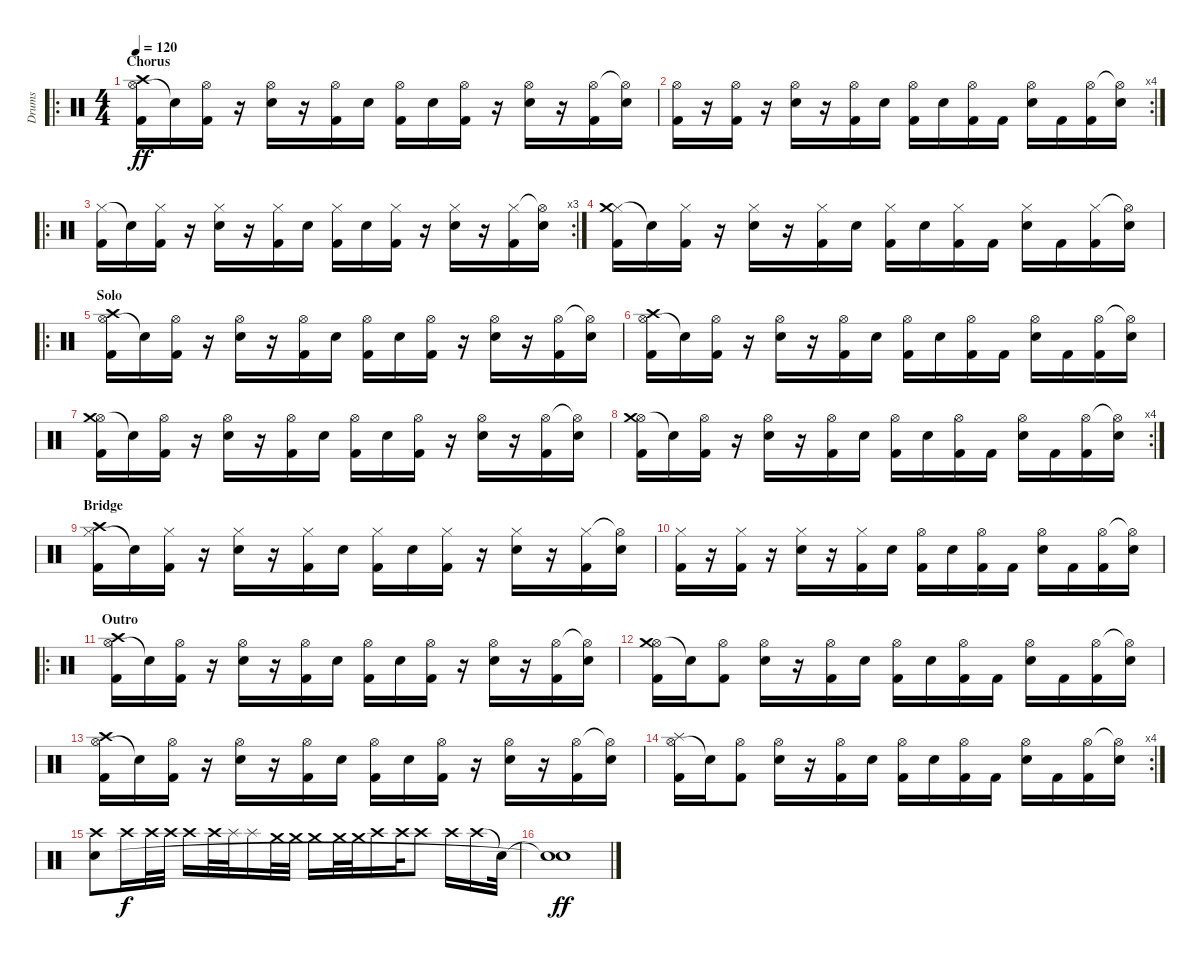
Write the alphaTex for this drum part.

\track ("Drums" "Drums") {instrument percussion}
\staff {score}
\articulation defaults
\ro
\ts (4 4)
\section ("" "Chorus")
\tempo 120
\clef neutral
\ks c
("Hi-Hat (open)" "Crash high (hit)" "Kick (hit) 2").16{dy ff} "Snare (hit)"{t}.16 ("Hi-Hat (open)" "Kick (hit) 2").16 r.16 ("Hi-Hat (open)" "Electric Snare (hit)").16 r.16 ("Hi-Hat (open)" "Kick (hit) 2").16 "Electric Snare (hit)".16 ("Hi-Hat (open)" "Kick (hit) 2").16 "Electric Snare (hit)".16 ("Hi-Hat (open)" "Kick (hit) 2").16 r.16 ("Hi-Hat (open)" "Electric Snare (hit)").16 r.16 ("Hi-Hat (open)" "Kick (hit) 2").16 ("Hi-Hat (open)"{t} "Electric Snare (hit)").16 |
\rc 4
("Hi-Hat (open)" "Kick (hit) 2").16 r.16 ("Hi-Hat (open)" "Kick (hit) 2").16 r.16 ("Hi-Hat (open)" "Electric Snare (hit)").16 r.16 ("Hi-Hat (open)" "Kick (hit) 2").16 "Electric Snare (hit)".16 ("Hi-Hat (open)" "Kick (hit) 2").16 "Electric Snare (hit)".16 ("Hi-Hat (open)" "Kick (hit) 2").16 "Kick (hit) 2".16 ("Hi-Hat (open)" "Electric Snare (hit)").16 "Kick (hit) 2".16 ("Hi-Hat (open)" "Kick (hit) 2").16 ("Hi-Hat (open)"{t} "Electric Snare (hit)").16 |
\ro
\rc 3
("Hi-Hat (closed)" "Kick (hit) 2").16 "Snare (hit)"{t}.16 ("Hi-Hat (closed)" "Kick (hit) 2").16 r.16 ("Hi-Hat (closed)" "Electric Snare (hit)").16 r.16 ("Hi-Hat (closed)" "Kick (hit) 2").16 "Electric Snare (hit)".16 ("Hi-Hat (closed)" "Kick (hit) 2").16 "Electric Snare (hit)".16 ("Hi-Hat (closed)" "Kick (hit) 2").16 r.16 ("Hi-Hat (closed)" "Electric Snare (hit)").16 r.16 ("Hi-Hat (closed)" "Kick (hit) 2").16 ("Hi-Hat (open)"{t} "Electric Snare (hit)").16 |
("Hi-Hat (closed)" "Crash medium (hit)" "Kick (hit) 2").16 "Snare (hit)"{t}.16 ("Hi-Hat (closed)" "Kick (hit) 2").16 r.16 ("Hi-Hat (closed)" "Electric Snare (hit)").16 r.16 ("Hi-Hat (closed)" "Kick (hit) 2").16 "Electric Snare (hit)".16 ("Hi-Hat (closed)" "Kick (hit) 2").16 "Electric Snare (hit)".16 ("Hi-Hat (closed)" "Kick (hit) 2").16 "Kick (hit) 2".16 ("Hi-Hat (closed)" "Electric Snare (hit)").16 "Kick (hit) 2".16 ("Hi-Hat (closed)" "Kick (hit) 2").16 ("Hi-Hat (open)"{t} "Electric Snare (hit)").16 |
\ro
\section ("" "Solo")
("Hi-Hat (open)" "Crash high (hit)" "Kick (hit) 2").16 "Snare (hit)"{t}.16 ("Hi-Hat (open)" "Kick (hit) 2").16 r.16 ("Hi-Hat (open)" "Electric Snare (hit)").16 r.16 ("Hi-Hat (open)" "Kick (hit) 2").16 "Electric Snare (hit)".16 ("Hi-Hat (open)" "Kick (hit) 2").16 "Electric Snare (hit)".16 ("Hi-Hat (open)" "Kick (hit) 2").16 r.16 ("Hi-Hat (open)" "Electric Snare (hit)").16 r.16 ("Hi-Hat (open)" "Kick (hit) 2").16 ("Hi-Hat (open)"{t} "Electric Snare (hit)").16 |
("Hi-Hat (open)" "Crash high (hit)" "Kick (hit) 2").16 "Snare (hit)"{t}.16 ("Hi-Hat (open)" "Kick (hit) 2").16 r.16 ("Hi-Hat (open)" "Electric Snare (hit)").16 r.16 ("Hi-Hat (open)" "Kick (hit) 2").16 "Electric Snare (hit)".16 ("Hi-Hat (open)" "Kick (hit) 2").16 "Electric Snare (hit)".16 ("Hi-Hat (open)" "Kick (hit) 2").16 "Kick (hit) 2".16 ("Hi-Hat (open)" "Electric Snare (hit)").16 "Kick (hit) 2".16 ("Hi-Hat (open)" "Kick (hit) 2").16 ("Hi-Hat (open)"{t} "Electric Snare (hit)").16 |
("Hi-Hat (open)" "Crash medium (hit)" "Kick (hit) 2").16 "Snare (hit)"{t}.16 ("Hi-Hat (open)" "Kick (hit) 2").16 r.16 ("Hi-Hat (open)" "Electric Snare (hit)").16 r.16 ("Hi-Hat (open)" "Kick (hit) 2").16 "Electric Snare (hit)".16 ("Hi-Hat (open)" "Kick (hit) 2").16 "Electric Snare (hit)".16 ("Hi-Hat (open)" "Kick (hit) 2").16 r.16 ("Hi-Hat (open)" "Electric Snare (hit)").16 r.16 ("Hi-Hat (open)" "Kick (hit) 2").16 ("Hi-Hat (open)"{t} "Electric Snare (hit)").16 |
\rc 4
("Hi-Hat (open)" "Crash medium (hit)" "Kick (hit) 2").16 "Snare (hit)"{t}.16 ("Hi-Hat (open)" "Kick (hit) 2").16 r.16 ("Hi-Hat (open)" "Electric Snare (hit)").16 r.16 ("Hi-Hat (open)" "Kick (hit) 2").16 "Electric Snare (hit)".16 ("Hi-Hat (open)" "Kick (hit) 2").16 "Electric Snare (hit)".16 ("Hi-Hat (open)" "Kick (hit) 2").16 "Kick (hit) 2".16 ("Hi-Hat (open)" "Electric Snare (hit)").16 "Kick (hit) 2".16 ("Hi-Hat (open)" "Kick (hit) 2").16 ("Hi-Hat (open)"{t} "Electric Snare (hit)").16 |
\section ("" "Bridge")
("Hi-Hat (closed)" "Crash high (hit)" "Kick (hit) 2").16 "Snare (hit)"{t}.16 ("Hi-Hat (closed)" "Kick (hit) 2").16 r.16 ("Hi-Hat (closed)" "Electric Snare (hit)").16 r.16 ("Hi-Hat (closed)" "Kick (hit) 2").16 "Electric Snare (hit)".16 ("Hi-Hat (closed)" "Kick (hit) 2").16 "Electric Snare (hit)".16 ("Hi-Hat (closed)" "Kick (hit) 2").16 r.16 ("Hi-Hat (closed)" "Electric Snare (hit)").16 r.16 ("Hi-Hat (closed)" "Kick (hit) 2").16 ("Hi-Hat (open)"{t} "Electric Snare (hit)").16 |
("Hi-Hat (closed)" "Kick (hit) 2").16 r.16 ("Hi-Hat (closed)" "Kick (hit) 2").16 r.16 ("Hi-Hat (closed)" "Electric Snare (hit)").16 r.16 ("Hi-Hat (closed)" "Kick (hit) 2").16 "Electric Snare (hit)".16 ("Hi-Hat (open)" "Kick (hit) 2").16 "Electric Snare (hit)".16 ("Hi-Hat (open)" "Kick (hit) 2").16 "Kick (hit) 2".16 ("Hi-Hat (open)" "Electric Snare (hit)").16 "Kick (hit) 2".16 ("Hi-Hat (open)" "Kick (hit) 2").16 ("Hi-Hat (open)"{t} "Electric Snare (hit)").16 |
\ro
\section ("" "Outro")
("Hi-Hat (open)" "Crash high (hit)" "Kick (hit) 2").16 "Snare (hit)"{t}.16 ("Hi-Hat (open)" "Kick (hit) 2").16 r.16 ("Hi-Hat (open)" "Electric Snare (hit)").16 r.16 ("Hi-Hat (open)" "Kick (hit) 2").16 "Electric Snare (hit)".16 ("Hi-Hat (open)" "Kick (hit) 2").16 "Electric Snare (hit)".16 ("Hi-Hat (open)" "Kick (hit) 2").16 r.16 ("Hi-Hat (open)" "Electric Snare (hit)").16 r.16 ("Hi-Hat (open)" "Kick (hit) 2").16 ("Hi-Hat (open)"{t} "Electric Snare (hit)").16 |
("Hi-Hat (open)" "Crash medium (hit)" "Kick (hit) 2").16 "Snare (hit)"{t}.16 ("Hi-Hat (open)" "Kick (hit) 2").8 ("Hi-Hat (open)" "Electric Snare (hit)").16 r.16 ("Hi-Hat (open)" "Kick (hit) 2").16 "Electric Snare (hit)".16 ("Hi-Hat (open)" "Kick (hit) 2").16 "Electric Snare (hit)".16 ("Hi-Hat (open)" "Kick (hit) 2").16 "Kick (hit) 2".16 ("Hi-Hat (open)" "Electric Snare (hit)").16 "Kick (hit) 2".16 ("Hi-Hat (open)" "Kick (hit) 2").16 ("Hi-Hat (open)"{t} "Electric Snare (hit)").16 |
("Hi-Hat (open)" "Crash high (hit)" "Kick (hit) 2").16 "Snare (hit)"{t}.16 ("Hi-Hat (open)" "Kick (hit) 2").16 r.16 ("Hi-Hat (open)" "Electric Snare (hit)").16 r.16 ("Hi-Hat (open)" "Kick (hit) 2").16 "Electric Snare (hit)".16 ("Hi-Hat (open)" "Kick (hit) 2").16 "Electric Snare (hit)".16 ("Hi-Hat (open)" "Kick (hit) 2").16 r.16 ("Hi-Hat (open)" "Electric Snare (hit)").16 r.16 ("Hi-Hat (open)" "Kick (hit) 2").16 ("Hi-Hat (open)"{t} "Electric Snare (hit)").16 |
\rc 4
("Hi-Hat (open)" "Splash (hit)" "Kick (hit) 2").16 "Snare (hit)"{t}.16 ("Hi-Hat (open)" "Kick (hit) 2").8 ("Hi-Hat (open)" "Electric Snare (hit)").16 r.16 ("Hi-Hat (open)" "Kick (hit) 2").16 "Electric Snare (hit)".16 ("Hi-Hat (open)" "Kick (hit) 2").16 "Electric Snare (hit)".16 ("Hi-Hat (open)" "Kick (hit) 2").16 "Kick (hit) 2".16 ("Hi-Hat (open)" "Electric Snare (hit)").16 "Kick (hit) 2".16 ("Hi-Hat (open)" "Kick (hit) 2").16 ("Hi-Hat (open)"{t} "Electric Snare (hit)").16 |
("Crash high (hit)" "Electric Snare (hit)").8 "Crash high (hit)".16{dy f} "Crash high (hit)".32 "Crash high (hit)".32 "Crash high (hit)".16 "Crash high (hit)".32 "Splash (hit)".32 "Splash (hit)".16 "Crash medium (hit)".32 "Crash medium (hit)".32 "Crash medium (hit)".16 "Crash medium (hit)".32 "Crash medium (hit)".32 "Crash high (hit)".16 "Crash high (hit)".32 "Crash high (hit)".8 "Crash high (hit)".16 "Crash high (hit)".16 "Snare (hit)"{t}.32 |
("Snare (hit)"{t} "Snare (hit)"{t}).1{dy ff}
